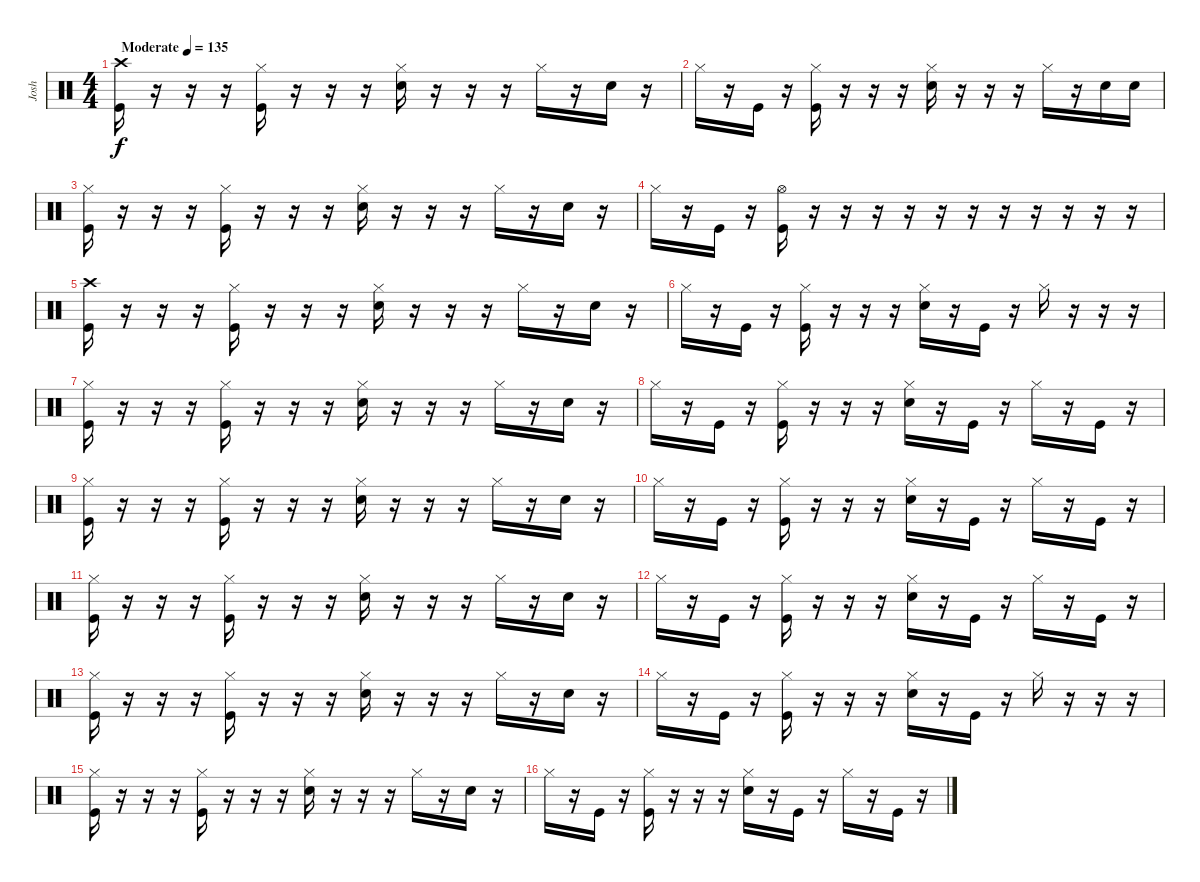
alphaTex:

\track ("Josh" "Josh") {instrument percussion}
\staff {score}
\articulation defaults
\ts (4 4)
\tempo (135 "Moderate")
\clef neutral
\ks c
("Crash high (hit)" "Kick (hit)").16{dy f} r.16 r.16 r.16 ("Hi-Hat (closed)" "Kick (hit)").16 r.16 r.16 r.16 ("Hi-Hat (closed)" "Snare (hit) 2").16 r.16 r.16 r.16 "Hi-Hat (closed)".16 r.16 "Snare (hit) 2".16 r.16 |
"Hi-Hat (closed)".16 r.16 "Kick (hit)".16 r.16 ("Hi-Hat (closed)" "Kick (hit)").16 r.16 r.16 r.16 ("Hi-Hat (closed)" "Snare (hit) 2").16 r.16 r.16 r.16 "Hi-Hat (closed)".16 r.16 "Snare (hit) 2".16 "Snare (hit) 2".16 |
("Hi-Hat (closed)" "Kick (hit)").16 r.16 r.16 r.16 ("Hi-Hat (closed)" "Kick (hit)").16 r.16 r.16 r.16 ("Hi-Hat (closed)" "Snare (hit) 2").16 r.16 r.16 r.16 "Hi-Hat (closed)".16 r.16 "Snare (hit) 2".16 r.16 |
"Hi-Hat (closed)".16 r.16 "Kick (hit)".16 r.16 ("Hi-Hat (open)" "Kick (hit)").16 r.16 r.16 r.16 r.16 r.16 r.16 r.16 r.16 r.16 r.16 r.16 |
("Crash high (hit)" "Kick (hit)").16 r.16 r.16 r.16 ("Hi-Hat (closed)" "Kick (hit)").16 r.16 r.16 r.16 ("Hi-Hat (closed)" "Snare (hit) 2").16 r.16 r.16 r.16 "Hi-Hat (closed)".16 r.16 "Snare (hit) 2".16 r.16 |
"Hi-Hat (closed)".16 r.16 "Kick (hit)".16 r.16 ("Hi-Hat (closed)" "Kick (hit)").16 r.16 r.16 r.16 ("Hi-Hat (closed)" "Snare (hit) 2").16 r.16 "Kick (hit)".16 r.16 "Hi-Hat (closed)".16 r.16 r.16 r.16 |
("Hi-Hat (closed)" "Kick (hit)").16 r.16 r.16 r.16 ("Hi-Hat (closed)" "Kick (hit)").16 r.16 r.16 r.16 ("Hi-Hat (closed)" "Snare (hit) 2").16 r.16 r.16 r.16 "Hi-Hat (closed)".16 r.16 "Snare (hit) 2".16 r.16 |
"Hi-Hat (closed)".16 r.16 "Kick (hit)".16 r.16 ("Hi-Hat (closed)" "Kick (hit)").16 r.16 r.16 r.16 ("Hi-Hat (closed)" "Snare (hit) 2").16 r.16 "Kick (hit)".16 r.16 "Hi-Hat (closed)".16 r.16 "Kick (hit)".16 r.16 |
("Hi-Hat (closed)" "Kick (hit)").16 r.16 r.16 r.16 ("Hi-Hat (closed)" "Kick (hit)").16 r.16 r.16 r.16 ("Hi-Hat (closed)" "Snare (hit) 2").16 r.16 r.16 r.16 "Hi-Hat (closed)".16 r.16 "Snare (hit) 2".16 r.16 |
"Hi-Hat (closed)".16 r.16 "Kick (hit)".16 r.16 ("Hi-Hat (closed)" "Kick (hit)").16 r.16 r.16 r.16 ("Hi-Hat (closed)" "Snare (hit) 2").16 r.16 "Kick (hit)".16 r.16 "Hi-Hat (closed)".16 r.16 "Kick (hit)".16 r.16 |
("Hi-Hat (closed)" "Kick (hit)").16 r.16 r.16 r.16 ("Hi-Hat (closed)" "Kick (hit)").16 r.16 r.16 r.16 ("Hi-Hat (closed)" "Snare (hit) 2").16 r.16 r.16 r.16 "Hi-Hat (closed)".16 r.16 "Snare (hit) 2".16 r.16 |
"Hi-Hat (closed)".16 r.16 "Kick (hit)".16 r.16 ("Hi-Hat (closed)" "Kick (hit)").16 r.16 r.16 r.16 ("Hi-Hat (closed)" "Snare (hit) 2").16 r.16 "Kick (hit)".16 r.16 "Hi-Hat (closed)".16 r.16 "Kick (hit)".16 r.16 |
("Hi-Hat (closed)" "Kick (hit)").16 r.16 r.16 r.16 ("Hi-Hat (closed)" "Kick (hit)").16 r.16 r.16 r.16 ("Hi-Hat (closed)" "Snare (hit) 2").16 r.16 r.16 r.16 "Hi-Hat (closed)".16 r.16 "Snare (hit) 2".16 r.16 |
"Hi-Hat (closed)".16 r.16 "Kick (hit)".16 r.16 ("Hi-Hat (closed)" "Kick (hit)").16 r.16 r.16 r.16 ("Hi-Hat (closed)" "Snare (hit) 2").16 r.16 "Kick (hit)".16 r.16 "Hi-Hat (closed)".16 r.16 r.16 r.16 |
("Hi-Hat (closed)" "Kick (hit)").16 r.16 r.16 r.16 ("Hi-Hat (closed)" "Kick (hit)").16 r.16 r.16 r.16 ("Hi-Hat (closed)" "Snare (hit) 2").16 r.16 r.16 r.16 "Hi-Hat (closed)".16 r.16 "Snare (hit) 2".16 r.16 |
"Hi-Hat (closed)".16 r.16 "Kick (hit)".16 r.16 ("Hi-Hat (closed)" "Kick (hit)").16 r.16 r.16 r.16 ("Hi-Hat (closed)" "Snare (hit) 2").16 r.16 "Kick (hit)".16 r.16 "Hi-Hat (closed)".16 r.16 "Kick (hit)".16 r.16
